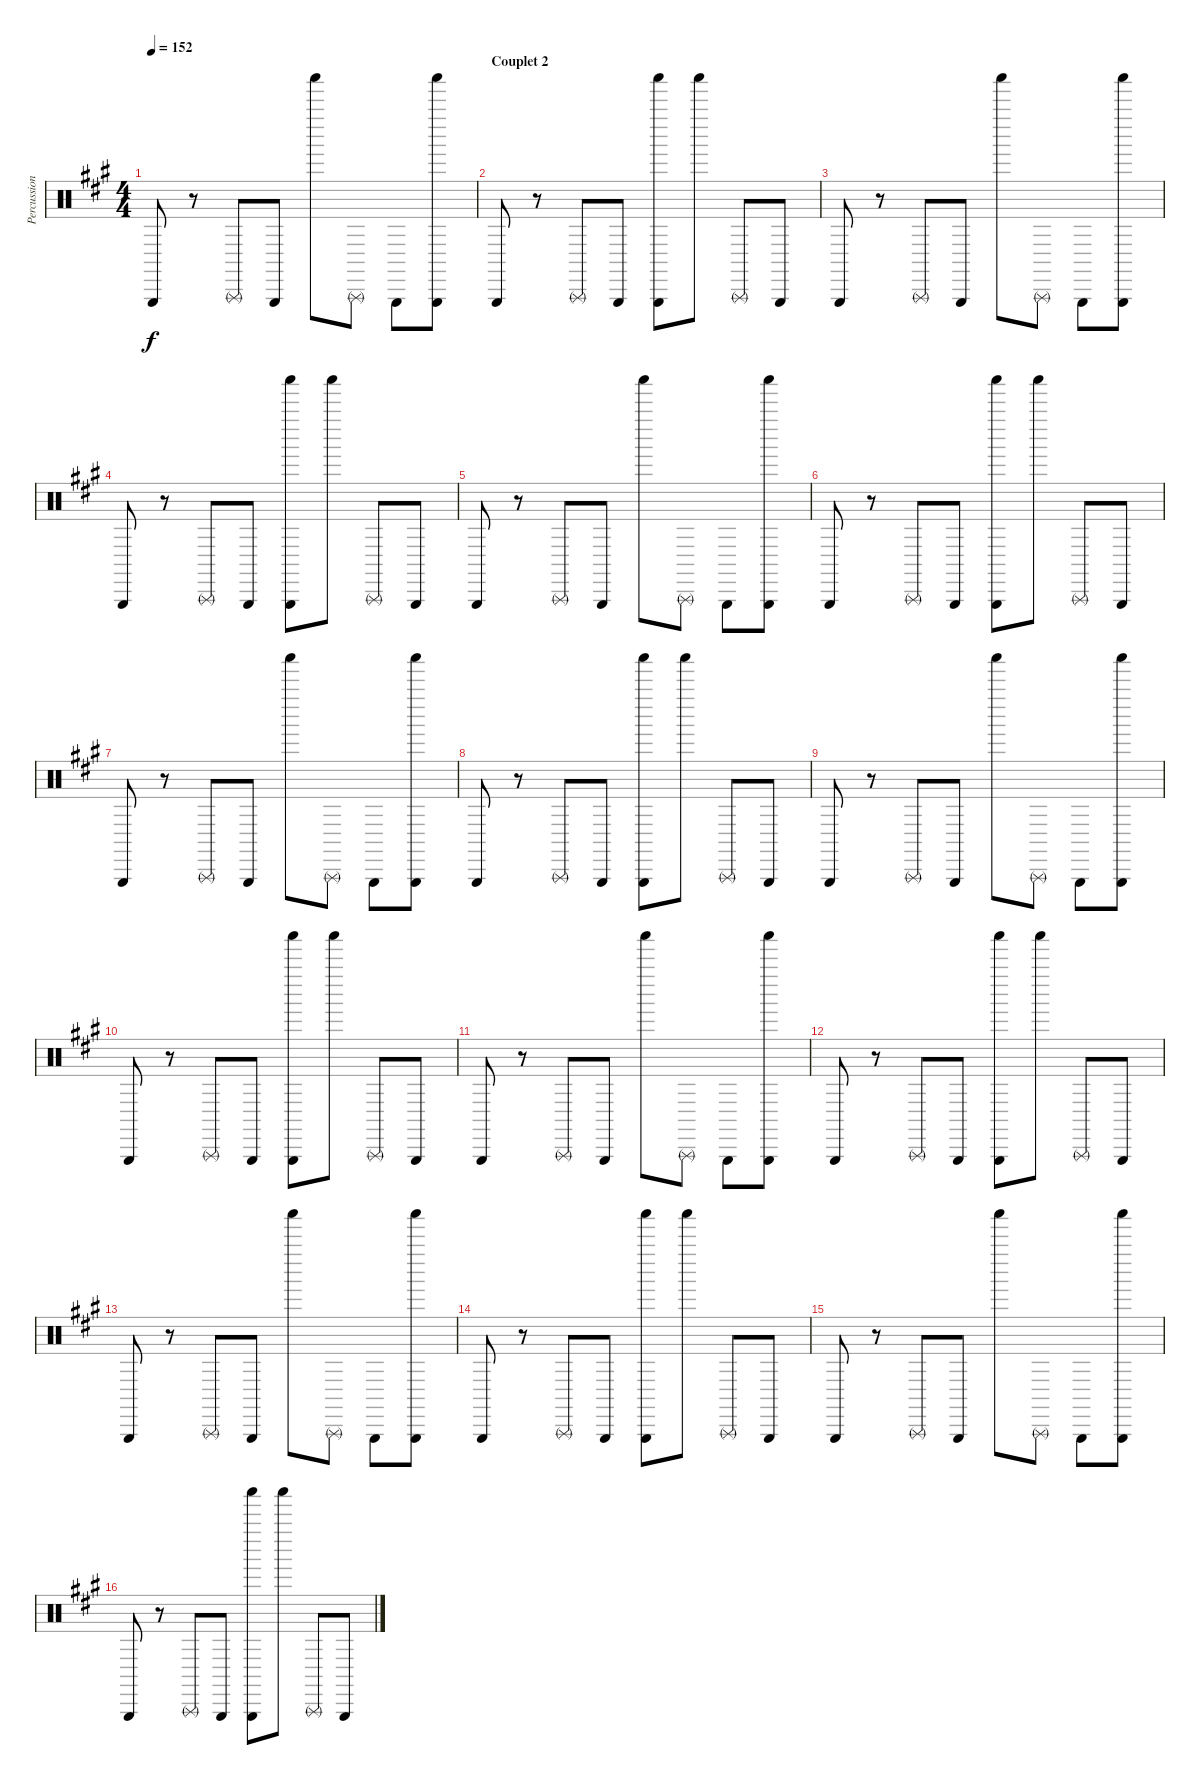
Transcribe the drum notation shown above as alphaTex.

\track ("Percussions" "Percussion") {instrument percussion}
\staff {score}
\articulation defaults
\ts (4 4)
\tempo 152
\clef neutral
\ks a "Triangle (hit)".8{dy f}
r.8 "Triangle (rnute)".8 "Triangle (hit)".8 "Shaker (hit)".8 "Triangle (rnute)".8 "Triangle (hit)".8 ("Triangle (hit)" "Shaker (hit)").8 |
\section ("" "Couplet 2")
"Triangle (hit)".8 r.8 "Triangle (rnute)".8 "Triangle (hit)".8 ("Triangle (hit)" "Shaker (hit)").8 "Shaker (hit)".8 "Triangle (rnute)".8 "Triangle (hit)".8 |
"Triangle (hit)".8 r.8 "Triangle (rnute)".8 "Triangle (hit)".8 "Shaker (hit)".8 "Triangle (rnute)".8 "Triangle (hit)".8 ("Triangle (hit)" "Shaker (hit)").8 |
"Triangle (hit)".8 r.8 "Triangle (rnute)".8 "Triangle (hit)".8 ("Triangle (hit)" "Shaker (hit)").8 "Shaker (hit)".8 "Triangle (rnute)".8 "Triangle (hit)".8 |
"Triangle (hit)".8 r.8 "Triangle (rnute)".8 "Triangle (hit)".8 "Shaker (hit)".8 "Triangle (rnute)".8 "Triangle (hit)".8 ("Triangle (hit)" "Shaker (hit)").8 |
"Triangle (hit)".8 r.8 "Triangle (rnute)".8 "Triangle (hit)".8 ("Triangle (hit)" "Shaker (hit)").8 "Shaker (hit)".8 "Triangle (rnute)".8 "Triangle (hit)".8 |
"Triangle (hit)".8 r.8 "Triangle (rnute)".8 "Triangle (hit)".8 "Shaker (hit)".8 "Triangle (rnute)".8 "Triangle (hit)".8 ("Triangle (hit)" "Shaker (hit)").8 |
"Triangle (hit)".8 r.8 "Triangle (rnute)".8 "Triangle (hit)".8 ("Triangle (hit)" "Shaker (hit)").8 "Shaker (hit)".8 "Triangle (rnute)".8 "Triangle (hit)".8 |
"Triangle (hit)".8 r.8 "Triangle (rnute)".8 "Triangle (hit)".8 "Shaker (hit)".8 "Triangle (rnute)".8 "Triangle (hit)".8 ("Triangle (hit)" "Shaker (hit)").8 |
"Triangle (hit)".8 r.8 "Triangle (rnute)".8 "Triangle (hit)".8 ("Triangle (hit)" "Shaker (hit)").8 "Shaker (hit)".8 "Triangle (rnute)".8 "Triangle (hit)".8 |
"Triangle (hit)".8 r.8 "Triangle (rnute)".8 "Triangle (hit)".8 "Shaker (hit)".8 "Triangle (rnute)".8 "Triangle (hit)".8 ("Triangle (hit)" "Shaker (hit)").8 |
"Triangle (hit)".8 r.8 "Triangle (rnute)".8 "Triangle (hit)".8 ("Triangle (hit)" "Shaker (hit)").8 "Shaker (hit)".8 "Triangle (rnute)".8 "Triangle (hit)".8 |
"Triangle (hit)".8 r.8 "Triangle (rnute)".8 "Triangle (hit)".8 "Shaker (hit)".8 "Triangle (rnute)".8 "Triangle (hit)".8 ("Triangle (hit)" "Shaker (hit)").8 |
"Triangle (hit)".8 r.8 "Triangle (rnute)".8 "Triangle (hit)".8 ("Triangle (hit)" "Shaker (hit)").8 "Shaker (hit)".8 "Triangle (rnute)".8 "Triangle (hit)".8 |
"Triangle (hit)".8 r.8 "Triangle (rnute)".8 "Triangle (hit)".8 "Shaker (hit)".8 "Triangle (rnute)".8 "Triangle (hit)".8 ("Triangle (hit)" "Shaker (hit)").8 |
"Triangle (hit)".8 r.8 "Triangle (rnute)".8 "Triangle (hit)".8 ("Triangle (hit)" "Shaker (hit)").8 "Shaker (hit)".8 "Triangle (rnute)".8 "Triangle (hit)".8
